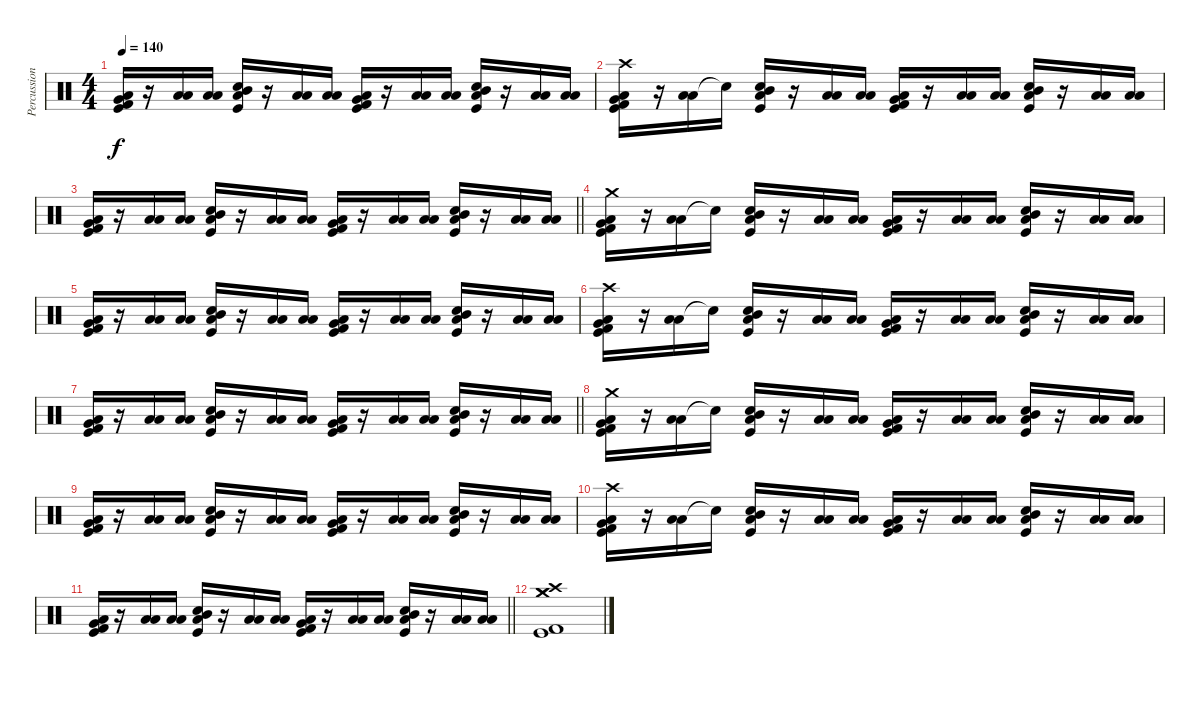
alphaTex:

\track ("Percussion" "Percussion") {instrument percussion}
\staff {score}
\articulation defaults
\ts (4 4)
\tempo 140
\clef neutral
\ks c
("Low Floor Tom (hit)" "Very Low Tom (hit)" "Kick (hit) 2" "Kick (hit)").16{dy f} r.16 ("Low Tom (hit)" "Low Tom (hit)").16 ("Low Tom (hit)" "Low Tom (hit)").16 ("Mid Tom (hit)" "Snare (hit) 2" "Low Tom (hit)" "Kick (hit)").16 r.16 ("Low Tom (hit)" "Low Tom (hit)").16 ("Low Tom (hit)" "Low Tom (hit)").16 ("Very Low Tom (hit)" "Low Floor Tom (hit)" "Kick (hit) 2" "Kick (hit)").16 r.16 ("Low Tom (hit)" "Low Tom (hit)").16 ("Low Tom (hit)" "Low Tom (hit)").16 ("Mid Tom (hit)" "Snare (hit) 2" "Low Tom (hit)" "Kick (hit)").16 r.16 ("Low Tom (hit)" "Low Tom (hit)").16 ("Low Tom (hit)" "Low Tom (hit)").16 |
("Crash high (hit)" "Low Floor Tom (hit)" "Very Low Tom (hit)" "Kick (hit) 2" "Kick (hit)").16 r.16 ("Low Tom (hit)" "Low Tom (hit)").16 "Snare (hit)"{t}.16 ("Mid Tom (hit)" "Snare (hit) 2" "Low Tom (hit)" "Kick (hit)").16 r.16 ("Low Tom (hit)" "Low Tom (hit)").16 ("Low Tom (hit)" "Low Tom (hit)").16 ("Very Low Tom (hit)" "Low Floor Tom (hit)" "Kick (hit) 2" "Kick (hit)").16 r.16 ("Low Tom (hit)" "Low Tom (hit)").16 ("Low Tom (hit)" "Low Tom (hit)").16 ("Mid Tom (hit)" "Snare (hit) 2" "Low Tom (hit)" "Kick (hit)").16 r.16 ("Low Tom (hit)" "Low Tom (hit)").16 ("Low Tom (hit)" "Low Tom (hit)").16 |
\barLineRight lightlight
("Low Floor Tom (hit)" "Very Low Tom (hit)" "Kick (hit) 2" "Kick (hit)").16 r.16 ("Low Tom (hit)" "Low Tom (hit)").16 ("Low Tom (hit)" "Low Tom (hit)").16 ("Mid Tom (hit)" "Snare (hit) 2" "Low Tom (hit)" "Kick (hit)").16 r.16 ("Low Tom (hit)" "Low Tom (hit)").16 ("Low Tom (hit)" "Low Tom (hit)").16 ("Very Low Tom (hit)" "Low Floor Tom (hit)" "Kick (hit) 2" "Kick (hit)").16 r.16 ("Low Tom (hit)" "Low Tom (hit)").16 ("Low Tom (hit)" "Low Tom (hit)").16 ("Mid Tom (hit)" "Snare (hit) 2" "Low Tom (hit)" "Kick (hit)").16 r.16 ("Low Tom (hit)" "Low Tom (hit)").16 ("Low Tom (hit)" "Low Tom (hit)").16 |
("Crash medium (hit)" "Low Floor Tom (hit)" "Very Low Tom (hit)" "Kick (hit) 2" "Kick (hit)").16 r.16 ("Low Tom (hit)" "Low Tom (hit)").16 "Snare (hit)"{t}.16 ("Mid Tom (hit)" "Snare (hit) 2" "Low Tom (hit)" "Kick (hit)").16 r.16 ("Low Tom (hit)" "Low Tom (hit)").16 ("Low Tom (hit)" "Low Tom (hit)").16 ("Very Low Tom (hit)" "Low Floor Tom (hit)" "Kick (hit) 2" "Kick (hit)").16 r.16 ("Low Tom (hit)" "Low Tom (hit)").16 ("Low Tom (hit)" "Low Tom (hit)").16 ("Mid Tom (hit)" "Snare (hit) 2" "Low Tom (hit)" "Kick (hit)").16 r.16 ("Low Tom (hit)" "Low Tom (hit)").16 ("Low Tom (hit)" "Low Tom (hit)").16 |
("Low Floor Tom (hit)" "Very Low Tom (hit)" "Kick (hit) 2" "Kick (hit)").16 r.16 ("Low Tom (hit)" "Low Tom (hit)").16 ("Low Tom (hit)" "Low Tom (hit)").16 ("Mid Tom (hit)" "Snare (hit) 2" "Low Tom (hit)" "Kick (hit)").16 r.16 ("Low Tom (hit)" "Low Tom (hit)").16 ("Low Tom (hit)" "Low Tom (hit)").16 ("Very Low Tom (hit)" "Low Floor Tom (hit)" "Kick (hit) 2" "Kick (hit)").16 r.16 ("Low Tom (hit)" "Low Tom (hit)").16 ("Low Tom (hit)" "Low Tom (hit)").16 ("Mid Tom (hit)" "Snare (hit) 2" "Low Tom (hit)" "Kick (hit)").16 r.16 ("Low Tom (hit)" "Low Tom (hit)").16 ("Low Tom (hit)" "Low Tom (hit)").16 |
("Crash high (hit)" "Low Floor Tom (hit)" "Very Low Tom (hit)" "Kick (hit) 2" "Kick (hit)").16 r.16 ("Low Tom (hit)" "Low Tom (hit)").16 "Snare (hit)"{t}.16 ("Mid Tom (hit)" "Snare (hit) 2" "Low Tom (hit)" "Kick (hit)").16 r.16 ("Low Tom (hit)" "Low Tom (hit)").16 ("Low Tom (hit)" "Low Tom (hit)").16 ("Very Low Tom (hit)" "Low Floor Tom (hit)" "Kick (hit) 2" "Kick (hit)").16 r.16 ("Low Tom (hit)" "Low Tom (hit)").16 ("Low Tom (hit)" "Low Tom (hit)").16 ("Mid Tom (hit)" "Snare (hit) 2" "Low Tom (hit)" "Kick (hit)").16 r.16 ("Low Tom (hit)" "Low Tom (hit)").16 ("Low Tom (hit)" "Low Tom (hit)").16 |
\barLineRight lightlight
("Low Floor Tom (hit)" "Very Low Tom (hit)" "Kick (hit) 2" "Kick (hit)").16 r.16 ("Low Tom (hit)" "Low Tom (hit)").16 ("Low Tom (hit)" "Low Tom (hit)").16 ("Mid Tom (hit)" "Snare (hit) 2" "Low Tom (hit)" "Kick (hit)").16 r.16 ("Low Tom (hit)" "Low Tom (hit)").16 ("Low Tom (hit)" "Low Tom (hit)").16 ("Very Low Tom (hit)" "Low Floor Tom (hit)" "Kick (hit) 2" "Kick (hit)").16 r.16 ("Low Tom (hit)" "Low Tom (hit)").16 ("Low Tom (hit)" "Low Tom (hit)").16 ("Mid Tom (hit)" "Snare (hit) 2" "Low Tom (hit)" "Kick (hit)").16 r.16 ("Low Tom (hit)" "Low Tom (hit)").16 ("Low Tom (hit)" "Low Tom (hit)").16 |
("Crash medium (hit)" "Low Floor Tom (hit)" "Very Low Tom (hit)" "Kick (hit) 2" "Kick (hit)").16 r.16 ("Low Tom (hit)" "Low Tom (hit)").16 "Snare (hit)"{t}.16 ("Mid Tom (hit)" "Snare (hit) 2" "Low Tom (hit)" "Kick (hit)").16 r.16 ("Low Tom (hit)" "Low Tom (hit)").16 ("Low Tom (hit)" "Low Tom (hit)").16 ("Very Low Tom (hit)" "Low Floor Tom (hit)" "Kick (hit) 2" "Kick (hit)").16 r.16 ("Low Tom (hit)" "Low Tom (hit)").16 ("Low Tom (hit)" "Low Tom (hit)").16 ("Mid Tom (hit)" "Snare (hit) 2" "Low Tom (hit)" "Kick (hit)").16 r.16 ("Low Tom (hit)" "Low Tom (hit)").16 ("Low Tom (hit)" "Low Tom (hit)").16 |
("Low Floor Tom (hit)" "Very Low Tom (hit)" "Kick (hit) 2" "Kick (hit)").16 r.16 ("Low Tom (hit)" "Low Tom (hit)").16 ("Low Tom (hit)" "Low Tom (hit)").16 ("Mid Tom (hit)" "Snare (hit) 2" "Low Tom (hit)" "Kick (hit)").16 r.16 ("Low Tom (hit)" "Low Tom (hit)").16 ("Low Tom (hit)" "Low Tom (hit)").16 ("Very Low Tom (hit)" "Low Floor Tom (hit)" "Kick (hit) 2" "Kick (hit)").16 r.16 ("Low Tom (hit)" "Low Tom (hit)").16 ("Low Tom (hit)" "Low Tom (hit)").16 ("Mid Tom (hit)" "Snare (hit) 2" "Low Tom (hit)" "Kick (hit)").16 r.16 ("Low Tom (hit)" "Low Tom (hit)").16 ("Low Tom (hit)" "Low Tom (hit)").16 |
("Crash high (hit)" "Low Floor Tom (hit)" "Very Low Tom (hit)" "Kick (hit) 2" "Kick (hit)").16 r.16 ("Low Tom (hit)" "Low Tom (hit)").16 "Snare (hit)"{t}.16 ("Mid Tom (hit)" "Snare (hit) 2" "Low Tom (hit)" "Kick (hit)").16 r.16 ("Low Tom (hit)" "Low Tom (hit)").16 ("Low Tom (hit)" "Low Tom (hit)").16 ("Very Low Tom (hit)" "Low Floor Tom (hit)" "Kick (hit) 2" "Kick (hit)").16 r.16 ("Low Tom (hit)" "Low Tom (hit)").16 ("Low Tom (hit)" "Low Tom (hit)").16 ("Mid Tom (hit)" "Snare (hit) 2" "Low Tom (hit)" "Kick (hit)").16 r.16 ("Low Tom (hit)" "Low Tom (hit)").16 ("Low Tom (hit)" "Low Tom (hit)").16 |
\barLineRight lightlight
("Low Floor Tom (hit)" "Very Low Tom (hit)" "Kick (hit) 2" "Kick (hit)").16 r.16 ("Low Tom (hit)" "Low Tom (hit)").16 ("Low Tom (hit)" "Low Tom (hit)").16 ("Mid Tom (hit)" "Snare (hit) 2" "Low Tom (hit)" "Kick (hit)").16 r.16 ("Low Tom (hit)" "Low Tom (hit)").16 ("Low Tom (hit)" "Low Tom (hit)").16 ("Very Low Tom (hit)" "Low Floor Tom (hit)" "Kick (hit) 2" "Kick (hit)").16 r.16 ("Low Tom (hit)" "Low Tom (hit)").16 ("Low Tom (hit)" "Low Tom (hit)").16 ("Mid Tom (hit)" "Snare (hit) 2" "Low Tom (hit)" "Kick (hit)").16 r.16 ("Low Tom (hit)" "Low Tom (hit)").16 ("Low Tom (hit)" "Low Tom (hit)").16 |
("Crash medium (hit)" "Crash high (hit)" "Crash medium (hit)" "Kick (hit) 2" "Kick (hit)").1
